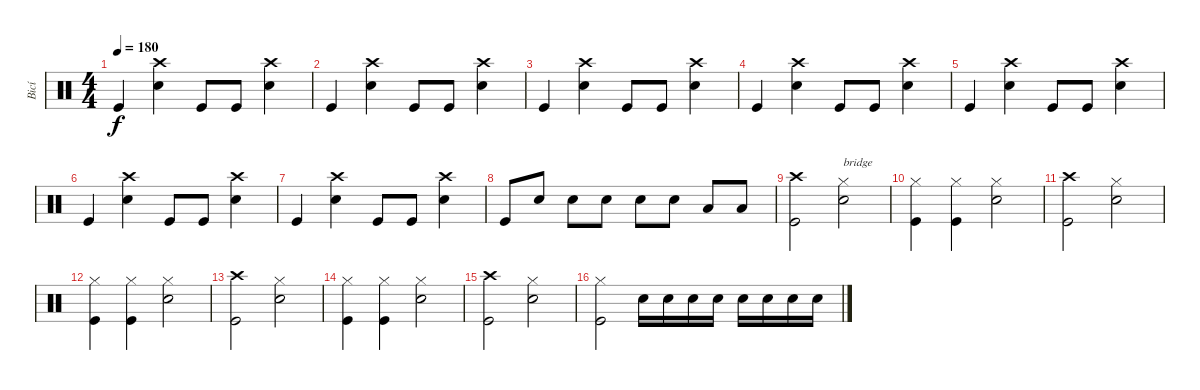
\track ("Bicí" "Bicí") {instrument percussion}
\staff {score}
\articulation defaults
\ts (4 4)
\tempo 180
\clef neutral
\ks c "Kick (hit)".4{dy f}
("Snare (hit) 2" "Crash high (hit)").4 "Kick (hit)".8 "Kick (hit)".8 ("Snare (hit) 2" "Crash high (hit)").4 |
"Kick (hit)".4 ("Snare (hit) 2" "Crash high (hit)").4 "Kick (hit)".8 "Kick (hit)".8 ("Snare (hit) 2" "Crash high (hit)").4 |
"Kick (hit)".4 ("Snare (hit) 2" "Crash high (hit)").4 "Kick (hit)".8 "Kick (hit)".8 ("Snare (hit) 2" "Crash high (hit)").4 |
"Kick (hit)".4 ("Snare (hit) 2" "Crash high (hit)").4 "Kick (hit)".8 "Kick (hit)".8 ("Snare (hit) 2" "Crash high (hit)").4 |
"Kick (hit)".4 ("Snare (hit) 2" "Crash high (hit)").4 "Kick (hit)".8 "Kick (hit)".8 ("Snare (hit) 2" "Crash high (hit)").4 |
"Kick (hit)".4 ("Snare (hit) 2" "Crash high (hit)").4 "Kick (hit)".8 "Kick (hit)".8 ("Snare (hit) 2" "Crash high (hit)").4 |
"Kick (hit)".4 ("Snare (hit) 2" "Crash high (hit)").4 "Kick (hit)".8 "Kick (hit)".8 ("Snare (hit) 2" "Crash high (hit)").4 |
"Kick (hit)".8 "Snare (hit) 2".8 "Snare (hit) 2".8 "Snare (hit) 2".8 "Snare (hit) 2".8 "Snare (hit) 2".8 "Low Tom (hit)".8 "Low Tom (hit)".8 |
("Kick (hit)" "Crash high (hit)").2 ("Snare (hit) 2" "Hi-Hat (closed)").2{txt "bridge"} |
("Kick (hit)" "Hi-Hat (closed)").4 ("Kick (hit)" "Hi-Hat (closed)").4 ("Snare (hit) 2" "Hi-Hat (closed)").2 |
("Kick (hit)" "Crash high (hit)").2 ("Snare (hit) 2" "Hi-Hat (closed)").2 |
("Kick (hit)" "Hi-Hat (closed)").4 ("Kick (hit)" "Hi-Hat (closed)").4 ("Snare (hit) 2" "Hi-Hat (closed)").2 |
("Kick (hit)" "Crash high (hit)").2 ("Snare (hit) 2" "Hi-Hat (closed)").2 |
("Kick (hit)" "Hi-Hat (closed)").4 ("Kick (hit)" "Hi-Hat (closed)").4 ("Snare (hit) 2" "Hi-Hat (closed)").2 |
("Kick (hit)" "Crash high (hit)").2 ("Snare (hit) 2" "Hi-Hat (closed)").2 |
("Kick (hit)" "Hi-Hat (closed)").2 "Snare (hit) 2".16 "Snare (hit) 2".16 "Snare (hit) 2".16 "Snare (hit) 2".16 "Snare (hit) 2".16 "Snare (hit) 2".16 "Snare (hit) 2".16 "Snare (hit) 2".16
